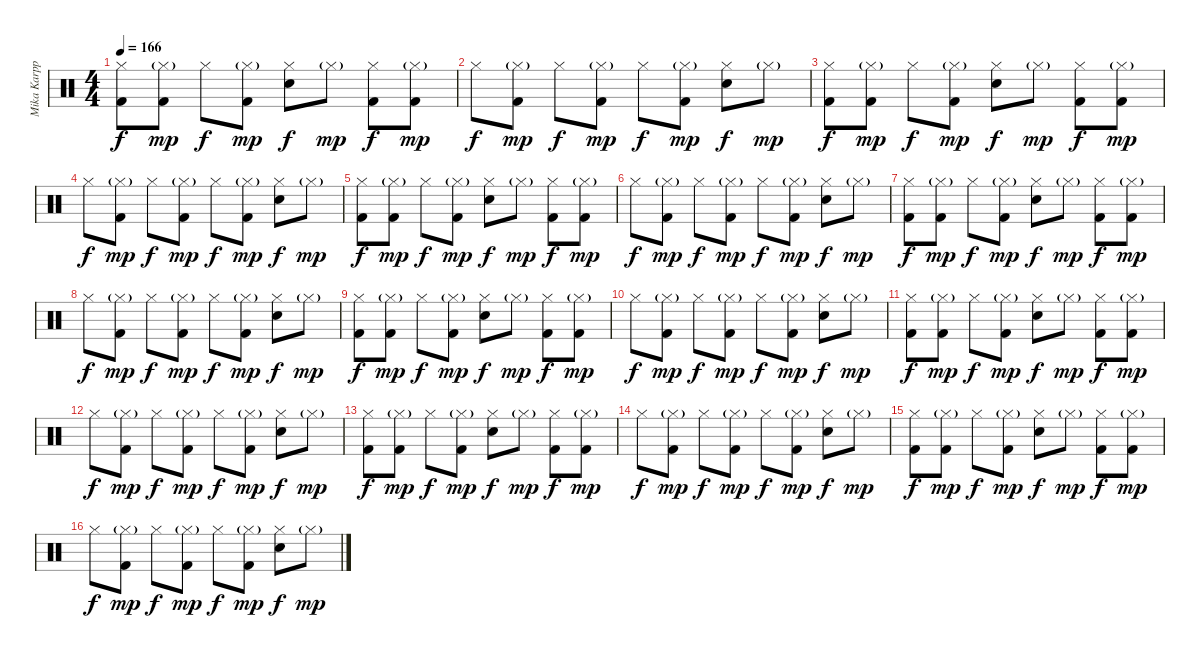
\track ("Mika Karppinen" "Mika Karpp") {instrument percussion}
\staff {score}
\articulation defaults
\ts (4 4)
\tempo 166
\clef neutral
\ks c
("Hi-Hat (closed)" "Kick (hit) 2").8{dy f} ("Hi-Hat (closed)"{g} "Kick (hit) 2").8{dy mp} "Hi-Hat (closed)".8{dy f} ("Hi-Hat (closed)"{g} "Kick (hit) 2").8{dy mp} ("Hi-Hat (closed)" "Snare (hit) 2").8{dy f} "Hi-Hat (closed)"{g}.8{dy mp} ("Hi-Hat (closed)" "Kick (hit) 2").8{dy f} ("Hi-Hat (closed)"{g} "Kick (hit) 2").8{dy mp} |
"Hi-Hat (closed)".8{dy f} ("Hi-Hat (closed)"{g} "Kick (hit) 2").8{dy mp} "Hi-Hat (closed)".8{dy f} ("Hi-Hat (closed)"{g} "Kick (hit) 2").8{dy mp} "Hi-Hat (closed)".8{dy f} ("Hi-Hat (closed)"{g} "Kick (hit) 2").8{dy mp} ("Hi-Hat (closed)" "Snare (hit) 2").8{dy f} "Hi-Hat (closed)"{g}.8{dy mp} |
("Hi-Hat (closed)" "Kick (hit) 2").8{dy f} ("Hi-Hat (closed)"{g} "Kick (hit) 2").8{dy mp} "Hi-Hat (closed)".8{dy f} ("Hi-Hat (closed)"{g} "Kick (hit) 2").8{dy mp} ("Hi-Hat (closed)" "Snare (hit) 2").8{dy f} "Hi-Hat (closed)"{g}.8{dy mp} ("Hi-Hat (closed)" "Kick (hit) 2").8{dy f} ("Hi-Hat (closed)"{g} "Kick (hit) 2").8{dy mp} |
"Hi-Hat (closed)".8{dy f} ("Hi-Hat (closed)"{g} "Kick (hit) 2").8{dy mp} "Hi-Hat (closed)".8{dy f} ("Hi-Hat (closed)"{g} "Kick (hit) 2").8{dy mp} "Hi-Hat (closed)".8{dy f} ("Hi-Hat (closed)"{g} "Kick (hit) 2").8{dy mp} ("Hi-Hat (closed)" "Snare (hit) 2").8{dy f} "Hi-Hat (closed)"{g}.8{dy mp} |
("Hi-Hat (closed)" "Kick (hit) 2").8{dy f} ("Hi-Hat (closed)"{g} "Kick (hit) 2").8{dy mp} "Hi-Hat (closed)".8{dy f} ("Hi-Hat (closed)"{g} "Kick (hit) 2").8{dy mp} ("Hi-Hat (closed)" "Snare (hit) 2").8{dy f} "Hi-Hat (closed)"{g}.8{dy mp} ("Hi-Hat (closed)" "Kick (hit) 2").8{dy f} ("Hi-Hat (closed)"{g} "Kick (hit) 2").8{dy mp} |
"Hi-Hat (closed)".8{dy f} ("Hi-Hat (closed)"{g} "Kick (hit) 2").8{dy mp} "Hi-Hat (closed)".8{dy f} ("Hi-Hat (closed)"{g} "Kick (hit) 2").8{dy mp} "Hi-Hat (closed)".8{dy f} ("Hi-Hat (closed)"{g} "Kick (hit) 2").8{dy mp} ("Hi-Hat (closed)" "Snare (hit) 2").8{dy f} "Hi-Hat (closed)"{g}.8{dy mp} |
("Hi-Hat (closed)" "Kick (hit) 2").8{dy f} ("Hi-Hat (closed)"{g} "Kick (hit) 2").8{dy mp} "Hi-Hat (closed)".8{dy f} ("Hi-Hat (closed)"{g} "Kick (hit) 2").8{dy mp} ("Hi-Hat (closed)" "Snare (hit) 2").8{dy f} "Hi-Hat (closed)"{g}.8{dy mp} ("Hi-Hat (closed)" "Kick (hit) 2").8{dy f} ("Hi-Hat (closed)"{g} "Kick (hit) 2").8{dy mp} |
"Hi-Hat (closed)".8{dy f} ("Hi-Hat (closed)"{g} "Kick (hit) 2").8{dy mp} "Hi-Hat (closed)".8{dy f} ("Hi-Hat (closed)"{g} "Kick (hit) 2").8{dy mp} "Hi-Hat (closed)".8{dy f} ("Hi-Hat (closed)"{g} "Kick (hit) 2").8{dy mp} ("Hi-Hat (closed)" "Snare (hit) 2").8{dy f} "Hi-Hat (closed)"{g}.8{dy mp} |
("Hi-Hat (closed)" "Kick (hit) 2").8{dy f} ("Hi-Hat (closed)"{g} "Kick (hit) 2").8{dy mp} "Hi-Hat (closed)".8{dy f} ("Hi-Hat (closed)"{g} "Kick (hit) 2").8{dy mp} ("Hi-Hat (closed)" "Snare (hit) 2").8{dy f} "Hi-Hat (closed)"{g}.8{dy mp} ("Hi-Hat (closed)" "Kick (hit) 2").8{dy f} ("Hi-Hat (closed)"{g} "Kick (hit) 2").8{dy mp} |
"Hi-Hat (closed)".8{dy f} ("Hi-Hat (closed)"{g} "Kick (hit) 2").8{dy mp} "Hi-Hat (closed)".8{dy f} ("Hi-Hat (closed)"{g} "Kick (hit) 2").8{dy mp} "Hi-Hat (closed)".8{dy f} ("Hi-Hat (closed)"{g} "Kick (hit) 2").8{dy mp} ("Hi-Hat (closed)" "Snare (hit) 2").8{dy f} "Hi-Hat (closed)"{g}.8{dy mp} |
("Hi-Hat (closed)" "Kick (hit) 2").8{dy f} ("Hi-Hat (closed)"{g} "Kick (hit) 2").8{dy mp} "Hi-Hat (closed)".8{dy f} ("Hi-Hat (closed)"{g} "Kick (hit) 2").8{dy mp} ("Hi-Hat (closed)" "Snare (hit) 2").8{dy f} "Hi-Hat (closed)"{g}.8{dy mp} ("Hi-Hat (closed)" "Kick (hit) 2").8{dy f} ("Hi-Hat (closed)"{g} "Kick (hit) 2").8{dy mp} |
"Hi-Hat (closed)".8{dy f} ("Hi-Hat (closed)"{g} "Kick (hit) 2").8{dy mp} "Hi-Hat (closed)".8{dy f} ("Hi-Hat (closed)"{g} "Kick (hit) 2").8{dy mp} "Hi-Hat (closed)".8{dy f} ("Hi-Hat (closed)"{g} "Kick (hit) 2").8{dy mp} ("Hi-Hat (closed)" "Snare (hit) 2").8{dy f} "Hi-Hat (closed)"{g}.8{dy mp} |
("Hi-Hat (closed)" "Kick (hit) 2").8{dy f} ("Hi-Hat (closed)"{g} "Kick (hit) 2").8{dy mp} "Hi-Hat (closed)".8{dy f} ("Hi-Hat (closed)"{g} "Kick (hit) 2").8{dy mp} ("Hi-Hat (closed)" "Snare (hit) 2").8{dy f} "Hi-Hat (closed)"{g}.8{dy mp} ("Hi-Hat (closed)" "Kick (hit) 2").8{dy f} ("Hi-Hat (closed)"{g} "Kick (hit) 2").8{dy mp} |
"Hi-Hat (closed)".8{dy f} ("Hi-Hat (closed)"{g} "Kick (hit) 2").8{dy mp} "Hi-Hat (closed)".8{dy f} ("Hi-Hat (closed)"{g} "Kick (hit) 2").8{dy mp} "Hi-Hat (closed)".8{dy f} ("Hi-Hat (closed)"{g} "Kick (hit) 2").8{dy mp} ("Hi-Hat (closed)" "Snare (hit) 2").8{dy f} "Hi-Hat (closed)"{g}.8{dy mp} |
("Hi-Hat (closed)" "Kick (hit) 2").8{dy f} ("Hi-Hat (closed)"{g} "Kick (hit) 2").8{dy mp} "Hi-Hat (closed)".8{dy f} ("Hi-Hat (closed)"{g} "Kick (hit) 2").8{dy mp} ("Hi-Hat (closed)" "Snare (hit) 2").8{dy f} "Hi-Hat (closed)"{g}.8{dy mp} ("Hi-Hat (closed)" "Kick (hit) 2").8{dy f} ("Hi-Hat (closed)"{g} "Kick (hit) 2").8{dy mp} |
"Hi-Hat (closed)".8{dy f} ("Hi-Hat (closed)"{g} "Kick (hit) 2").8{dy mp} "Hi-Hat (closed)".8{dy f} ("Hi-Hat (closed)"{g} "Kick (hit) 2").8{dy mp} "Hi-Hat (closed)".8{dy f} ("Hi-Hat (closed)"{g} "Kick (hit) 2").8{dy mp} ("Hi-Hat (closed)" "Snare (hit) 2").8{dy f} "Hi-Hat (closed)"{g}.8{dy mp}
